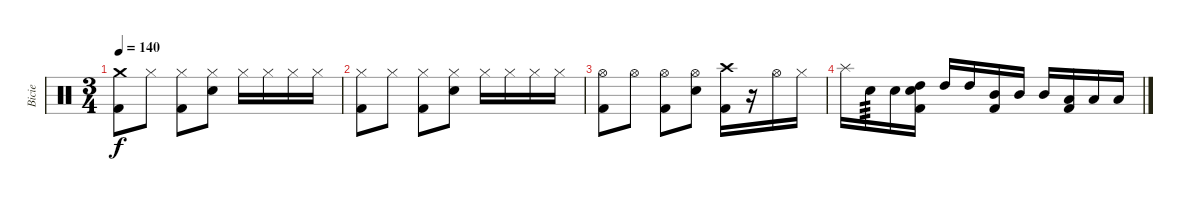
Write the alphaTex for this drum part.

\track ("Bicie" "Bicie") {instrument percussion}
\staff {score}
\articulation defaults
\ts (3 4)
\tempo 140
\clef neutral
\ks c
("Crash medium (hit)" "Kick (hit) 2").8{dy f volume 15} "Hi-Hat (closed)".8 ("Hi-Hat (closed)" "Kick (hit) 2").8 ("Hi-Hat (closed)" "Snare (hit) 2").8 "Hi-Hat (closed)".16 "Hi-Hat (closed)".16 "Hi-Hat (closed)".16 "Hi-Hat (closed)".16 |
("Hi-Hat (closed)" "Kick (hit) 2").8 "Hi-Hat (closed)".8 ("Hi-Hat (closed)" "Kick (hit) 2").8 ("Hi-Hat (closed)" "Snare (hit) 2").8 "Hi-Hat (closed)".16 "Hi-Hat (closed)".16 "Hi-Hat (closed)".16 "Hi-Hat (closed)".16 |
("Hi-Hat (open)" "Kick (hit) 2").8 "Hi-Hat (open)".8 ("Hi-Hat (open)" "Kick (hit) 2").8 ("Hi-Hat (open)" "Snare (hit) 2").8 ("Crash high (hit)" "Kick (hit) 2").16 r.16 "Hi-Hat (open)".16 "Hi-Hat (closed)".16 |
"Splash (hit)".16 "Snare (hit) 2".16{tp 3} "Snare (hit) 2".16 ("Snare (hit) 2" "High Tom (hit)" "Kick (hit) 2").16 "High Tom (hit)".16 "High Tom (hit)".16 ("Mid Tom (hit)" "Kick (hit) 2").16 "Mid Tom (hit)".16 "Mid Tom (hit)".16 ("Low Tom (hit)" "Kick (hit) 2").16 "Low Tom (hit)".16 "Low Tom (hit)".16
